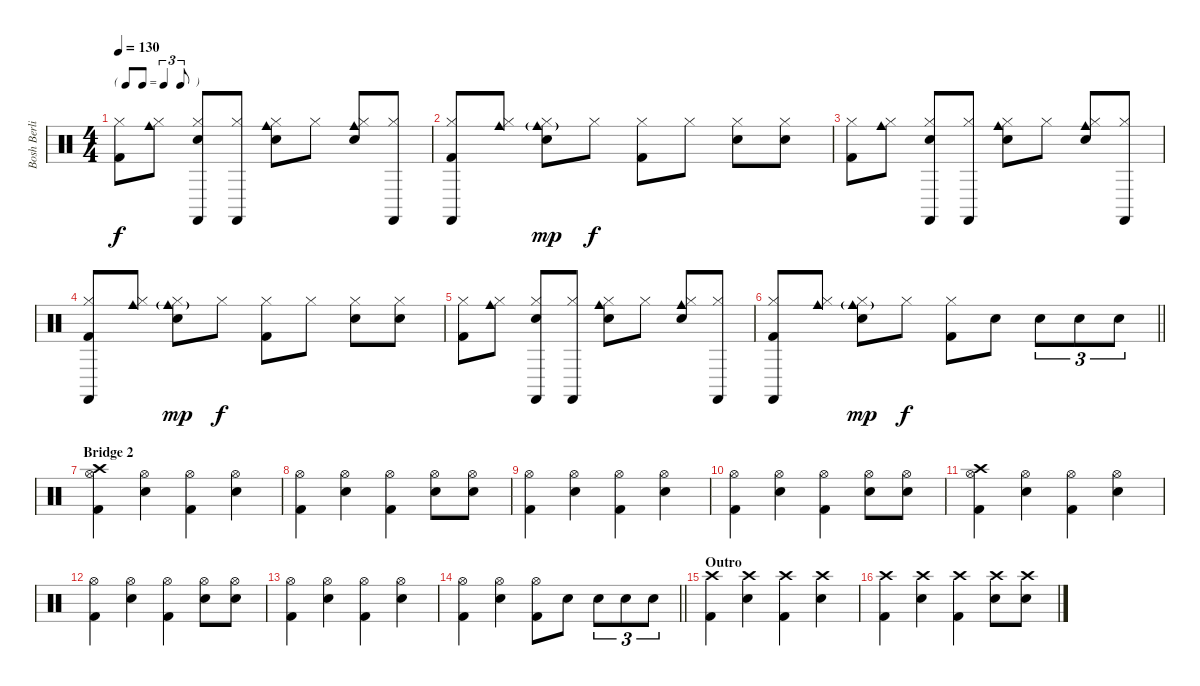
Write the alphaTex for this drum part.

\track ("Bosh Berlin" "Bosh Berli") {instrument percussion}
\staff {score}
\articulation defaults
\ts (4 4)
\tf triplet8th
\tempo 130
\clef neutral
\ks c
("Hi-Hat (closed)" "Kick (hit) 2").8{dy f} ("Cowbell medium (hit)" "Hi-Hat (closed)").8 ("Castanets (hit)" "Hi-Hat (closed)" "Snare (hit) 2").8 ("Castanets (hit)" "Hi-Hat (closed)").8 ("Cowbell medium (hit)" "Hi-Hat (closed)" "Snare (hit) 2").8 "Hi-Hat (closed)".8 ("Cowbell medium (hit)" "Hi-Hat (closed)" "Snare (hit) 2").8 ("Castanets (hit)" "Hi-Hat (closed)").8 |
("Hi-Hat (closed)" "Castanets (hit)" "Kick (hit) 2").8 ("Hi-Hat (closed)" "Cowbell medium (hit)").8 ("Hi-Hat (closed)" "Cowbell medium (hit)"{g} "Snare (hit) 2").8{dy mp} "Hi-Hat (closed)".8{dy f} ("Hi-Hat (closed)" "Kick (hit) 2").8 "Hi-Hat (closed)".8 ("Hi-Hat (closed)" "Snare (hit) 2").8 ("Hi-Hat (closed)" "Snare (hit) 2").8 |
("Hi-Hat (closed)" "Kick (hit) 2").8 ("Cowbell medium (hit)" "Hi-Hat (closed)").8 ("Castanets (hit)" "Hi-Hat (closed)" "Snare (hit) 2").8 ("Castanets (hit)" "Hi-Hat (closed)").8 ("Cowbell medium (hit)" "Hi-Hat (closed)" "Snare (hit) 2").8 "Hi-Hat (closed)".8 ("Cowbell medium (hit)" "Hi-Hat (closed)" "Snare (hit) 2").8 ("Castanets (hit)" "Hi-Hat (closed)").8 |
("Hi-Hat (closed)" "Castanets (hit)" "Kick (hit) 2").8 ("Hi-Hat (closed)" "Cowbell medium (hit)").8 ("Hi-Hat (closed)" "Cowbell medium (hit)"{g} "Snare (hit) 2").8{dy mp} "Hi-Hat (closed)".8{dy f} ("Hi-Hat (closed)" "Kick (hit) 2").8 "Hi-Hat (closed)".8 ("Hi-Hat (closed)" "Snare (hit) 2").8 ("Hi-Hat (closed)" "Snare (hit) 2").8 |
("Hi-Hat (closed)" "Kick (hit) 2").8 ("Cowbell medium (hit)" "Hi-Hat (closed)").8 ("Castanets (hit)" "Hi-Hat (closed)" "Snare (hit) 2").8 ("Castanets (hit)" "Hi-Hat (closed)").8 ("Cowbell medium (hit)" "Hi-Hat (closed)" "Snare (hit) 2").8 "Hi-Hat (closed)".8 ("Cowbell medium (hit)" "Hi-Hat (closed)" "Snare (hit) 2").8 ("Castanets (hit)" "Hi-Hat (closed)").8 |
\barLineRight lightlight
("Hi-Hat (closed)" "Castanets (hit)" "Kick (hit) 2").8 ("Hi-Hat (closed)" "Cowbell medium (hit)").8 ("Hi-Hat (closed)" "Cowbell medium (hit)"{g} "Snare (hit) 2").8{dy mp} "Hi-Hat (closed)".8{dy f} ("Hi-Hat (closed)" "Kick (hit) 2").8 "Snare (hit) 2".8 "Snare (hit) 2".8{tu (3 2)} "Snare (hit) 2".8{tu (3 2)} "Snare (hit) 2".8{tu (3 2)} |
\section ("" "Bridge 2")
("Crash high (hit)" "Hi-Hat (open)" "Kick (hit) 2").4 ("Hi-Hat (open)" "Snare (hit) 2").4 ("Hi-Hat (open)" "Kick (hit) 2").4 ("Hi-Hat (open)" "Snare (hit) 2").4 |
("Hi-Hat (open)" "Kick (hit) 2").4 ("Hi-Hat (open)" "Snare (hit) 2").4 ("Hi-Hat (open)" "Kick (hit) 2").4 ("Hi-Hat (open)" "Snare (hit) 2").8 ("Hi-Hat (open)" "Snare (hit) 2").8 |
("Hi-Hat (open)" "Kick (hit) 2").4 ("Hi-Hat (open)" "Snare (hit) 2").4 ("Hi-Hat (open)" "Kick (hit) 2").4 ("Hi-Hat (open)" "Snare (hit) 2").4 |
("Hi-Hat (open)" "Kick (hit) 2").4 ("Hi-Hat (open)" "Snare (hit) 2").4 ("Hi-Hat (open)" "Kick (hit) 2").4 ("Hi-Hat (open)" "Snare (hit) 2").8 ("Hi-Hat (open)" "Snare (hit) 2").8 |
("Crash high (hit)" "Hi-Hat (open)" "Kick (hit) 2").4 ("Hi-Hat (open)" "Snare (hit) 2").4 ("Hi-Hat (open)" "Kick (hit) 2").4 ("Hi-Hat (open)" "Snare (hit) 2").4 |
("Hi-Hat (open)" "Kick (hit) 2").4 ("Hi-Hat (open)" "Snare (hit) 2").4 ("Hi-Hat (open)" "Kick (hit) 2").4 ("Hi-Hat (open)" "Snare (hit) 2").8 ("Hi-Hat (open)" "Snare (hit) 2").8 |
("Hi-Hat (open)" "Kick (hit) 2").4 ("Hi-Hat (open)" "Snare (hit) 2").4 ("Hi-Hat (open)" "Kick (hit) 2").4 ("Hi-Hat (open)" "Snare (hit) 2").4 |
\barLineRight lightlight
("Hi-Hat (open)" "Kick (hit) 2").4 ("Hi-Hat (open)" "Snare (hit) 2").4 ("Hi-Hat (open)" "Kick (hit) 2").8 "Snare (hit) 2".8 "Snare (hit) 2".8{tu (3 2)} "Snare (hit) 2".8{tu (3 2)} "Snare (hit) 2".8{tu (3 2)} |
\section ("" "Outro")
("Crash high (hit)" "Kick (hit) 2").4 ("Crash high (hit)" "Snare (hit) 2").4 ("Crash high (hit)" "Kick (hit) 2").4 ("Crash high (hit)" "Snare (hit) 2").4 |
("Crash high (hit)" "Kick (hit) 2").4 ("Crash high (hit)" "Snare (hit) 2").4 ("Crash high (hit)" "Kick (hit) 2").4 ("Crash high (hit)" "Snare (hit) 2").8 ("Crash high (hit)" "Snare (hit) 2").8
